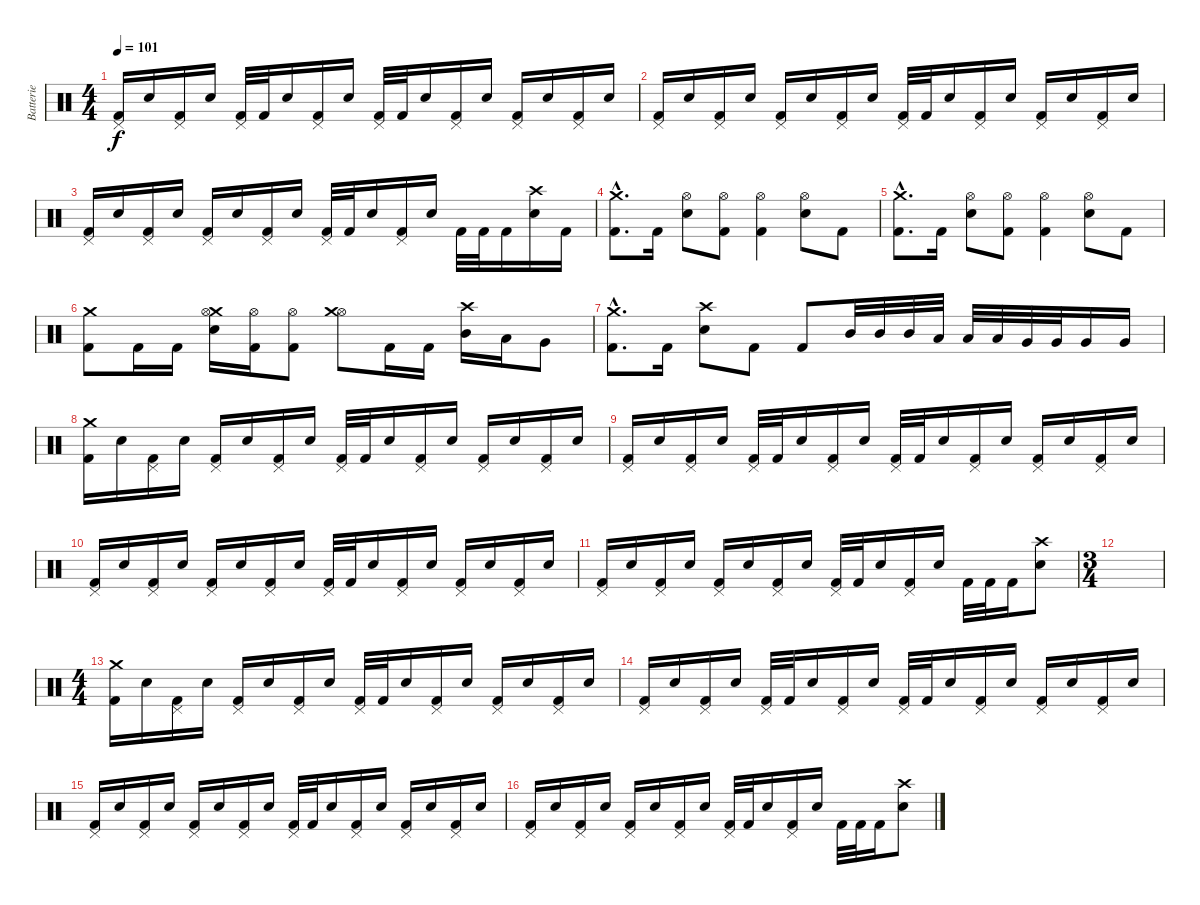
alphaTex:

\track ("Batterie" "Batterie") {instrument percussion}
\staff {score}
\articulation defaults
\ts (4 4)
\tempo 101
\clef neutral
\ks c
("Pedal Hi-Hat (hit)" "Kick (hit) 2").16{dy f} "Electric Snare (hit)".16 ("Pedal Hi-Hat (hit)" "Kick (hit) 2").16 "Electric Snare (hit)".16 ("Pedal Hi-Hat (hit)" "Kick (hit) 2").32 "Kick (hit) 2".32 "Electric Snare (hit)".16 ("Pedal Hi-Hat (hit)" "Kick (hit) 2").16 "Electric Snare (hit)".16 ("Pedal Hi-Hat (hit)" "Kick (hit) 2").32 "Kick (hit) 2".32 "Electric Snare (hit)".16 ("Pedal Hi-Hat (hit)" "Kick (hit) 2").16 "Electric Snare (hit)".16 ("Pedal Hi-Hat (hit)" "Kick (hit) 2").16 "Electric Snare (hit)".16 ("Pedal Hi-Hat (hit)" "Kick (hit) 2").16 "Electric Snare (hit)".16 |
("Pedal Hi-Hat (hit)" "Kick (hit) 2").16 "Electric Snare (hit)".16 ("Pedal Hi-Hat (hit)" "Kick (hit) 2").16 "Electric Snare (hit)".16 ("Pedal Hi-Hat (hit)" "Kick (hit) 2").16 "Electric Snare (hit)".16 ("Pedal Hi-Hat (hit)" "Kick (hit) 2").16 "Electric Snare (hit)".16 ("Pedal Hi-Hat (hit)" "Kick (hit) 2").32 "Kick (hit) 2".32 "Electric Snare (hit)".16 ("Pedal Hi-Hat (hit)" "Kick (hit) 2").16 "Electric Snare (hit)".16 ("Pedal Hi-Hat (hit)" "Kick (hit) 2").16 "Electric Snare (hit)".16 ("Pedal Hi-Hat (hit)" "Kick (hit) 2").16 "Electric Snare (hit)".16 |
("Pedal Hi-Hat (hit)" "Kick (hit) 2").16 "Electric Snare (hit)".16 ("Pedal Hi-Hat (hit)" "Kick (hit) 2").16 "Electric Snare (hit)".16 ("Pedal Hi-Hat (hit)" "Kick (hit) 2").16 "Electric Snare (hit)".16 ("Pedal Hi-Hat (hit)" "Kick (hit) 2").16 "Electric Snare (hit)".16 ("Pedal Hi-Hat (hit)" "Kick (hit) 2").32 "Kick (hit) 2".32 "Electric Snare (hit)".16 ("Pedal Hi-Hat (hit)" "Kick (hit) 2").16 "Electric Snare (hit)".16 "Kick (hit) 2".32 "Kick (hit) 2".32 "Kick (hit) 2".16 ("Crash high (hit)" "Electric Snare (hit)").16 "Kick (hit) 2".16 |
("Crash medium (hit)"{hac} "Kick (hit) 2"{hac}).8{d} "Kick (hit) 2".16 ("Hi-Hat (open)" "Electric Snare (hit)").8 ("Hi-Hat (open)" "Kick (hit) 2").8 ("Hi-Hat (open)" "Kick (hit) 2").4 ("Hi-Hat (open)" "Electric Snare (hit)").8 "Kick (hit) 2".8 |
("Crash medium (hit)"{hac} "Kick (hit) 2"{hac}).8{d} "Kick (hit) 2".16 ("Hi-Hat (open)" "Electric Snare (hit)").8 ("Hi-Hat (open)" "Kick (hit) 2").8 ("Hi-Hat (open)" "Kick (hit) 2").4 ("Hi-Hat (open)" "Electric Snare (hit)").8 "Kick (hit) 2".8 |
("Crash medium (hit)" "Kick (hit) 2").8 "Kick (hit) 2".16 "Kick (hit) 2".16 ("Crash medium (hit)" "Hi-Hat (open)" "Electric Snare (hit)").16 ("Hi-Hat (open)" "Kick (hit) 2").16 ("Hi-Hat (open)" "Kick (hit) 2").8 ("Hi-Hat (open)" "Crash medium (hit)").8 "Kick (hit) 2".16 "Kick (hit) 2".16 ("Crash high (hit)" "Mid Tom (hit)").16 "Low Tom (hit)".16 "Very Low Tom (hit)".8 |
("Crash medium (hit)"{hac} "Kick (hit) 2"{hac}).8{d} "Kick (hit) 2".16 ("Crash high (hit)" "Electric Snare (hit)").8 "Kick (hit) 2".8 "Kick (hit) 2".8 "Mid Tom (hit)".32 "Mid Tom (hit)".32 "Mid Tom (hit)".32 "Low Tom (hit)".32 "Low Tom (hit)".32 "Low Tom (hit)".32 "Very Low Tom (hit)".32 "Very Low Tom (hit)".32 "Very Low Tom (hit)".16 "Very Low Tom (hit)".16 |
("Crash medium (hit)" "Kick (hit) 2").16 "Electric Snare (hit)".16 ("Pedal Hi-Hat (hit)" "Kick (hit) 2").16 "Electric Snare (hit)".16 ("Pedal Hi-Hat (hit)" "Kick (hit) 2").16 "Electric Snare (hit)".16 ("Pedal Hi-Hat (hit)" "Kick (hit) 2").16 "Electric Snare (hit)".16 ("Pedal Hi-Hat (hit)" "Kick (hit) 2").32 "Kick (hit) 2".32 "Electric Snare (hit)".16 ("Pedal Hi-Hat (hit)" "Kick (hit) 2").16 "Electric Snare (hit)".16 ("Pedal Hi-Hat (hit)" "Kick (hit) 2").16 "Electric Snare (hit)".16 ("Pedal Hi-Hat (hit)" "Kick (hit) 2").16 "Electric Snare (hit)".16 |
("Pedal Hi-Hat (hit)" "Kick (hit) 2").16 "Electric Snare (hit)".16 ("Pedal Hi-Hat (hit)" "Kick (hit) 2").16 "Electric Snare (hit)".16 ("Pedal Hi-Hat (hit)" "Kick (hit) 2").32 "Kick (hit) 2".32 "Electric Snare (hit)".16 ("Pedal Hi-Hat (hit)" "Kick (hit) 2").16 "Electric Snare (hit)".16 ("Pedal Hi-Hat (hit)" "Kick (hit) 2").32 "Kick (hit) 2".32 "Electric Snare (hit)".16 ("Pedal Hi-Hat (hit)" "Kick (hit) 2").16 "Electric Snare (hit)".16 ("Pedal Hi-Hat (hit)" "Kick (hit) 2").16 "Electric Snare (hit)".16 ("Pedal Hi-Hat (hit)" "Kick (hit) 2").16 "Electric Snare (hit)".16 |
("Pedal Hi-Hat (hit)" "Kick (hit) 2").16 "Electric Snare (hit)".16 ("Pedal Hi-Hat (hit)" "Kick (hit) 2").16 "Electric Snare (hit)".16 ("Pedal Hi-Hat (hit)" "Kick (hit) 2").16 "Electric Snare (hit)".16 ("Pedal Hi-Hat (hit)" "Kick (hit) 2").16 "Electric Snare (hit)".16 ("Pedal Hi-Hat (hit)" "Kick (hit) 2").32 "Kick (hit) 2".32 "Electric Snare (hit)".16 ("Pedal Hi-Hat (hit)" "Kick (hit) 2").16 "Electric Snare (hit)".16 ("Pedal Hi-Hat (hit)" "Kick (hit) 2").16 "Electric Snare (hit)".16 ("Pedal Hi-Hat (hit)" "Kick (hit) 2").16 "Electric Snare (hit)".16 |
("Pedal Hi-Hat (hit)" "Kick (hit) 2").16 "Electric Snare (hit)".16 ("Pedal Hi-Hat (hit)" "Kick (hit) 2").16 "Electric Snare (hit)".16 ("Pedal Hi-Hat (hit)" "Kick (hit) 2").16 "Electric Snare (hit)".16 ("Pedal Hi-Hat (hit)" "Kick (hit) 2").16 "Electric Snare (hit)".16 ("Pedal Hi-Hat (hit)" "Kick (hit) 2").32 "Kick (hit) 2".32 "Electric Snare (hit)".16 ("Pedal Hi-Hat (hit)" "Kick (hit) 2").16 "Electric Snare (hit)".16 "Kick (hit) 2".32 "Kick (hit) 2".32 "Kick (hit) 2".16 ("Crash high (hit)" "Electric Snare (hit)").8 |
\ts (3 4)
|
\ts (4 4)
("Crash medium (hit)" "Kick (hit) 2").16 "Electric Snare (hit)".16 ("Pedal Hi-Hat (hit)" "Kick (hit) 2").16 "Electric Snare (hit)".16 ("Pedal Hi-Hat (hit)" "Kick (hit) 2").16 "Electric Snare (hit)".16 ("Pedal Hi-Hat (hit)" "Kick (hit) 2").16 "Electric Snare (hit)".16 ("Pedal Hi-Hat (hit)" "Kick (hit) 2").32 "Kick (hit) 2".32 "Electric Snare (hit)".16 ("Pedal Hi-Hat (hit)" "Kick (hit) 2").16 "Electric Snare (hit)".16 ("Pedal Hi-Hat (hit)" "Kick (hit) 2").16 "Electric Snare (hit)".16 ("Pedal Hi-Hat (hit)" "Kick (hit) 2").16 "Electric Snare (hit)".16 |
("Pedal Hi-Hat (hit)" "Kick (hit) 2").16 "Electric Snare (hit)".16 ("Pedal Hi-Hat (hit)" "Kick (hit) 2").16 "Electric Snare (hit)".16 ("Pedal Hi-Hat (hit)" "Kick (hit) 2").32 "Kick (hit) 2".32 "Electric Snare (hit)".16 ("Pedal Hi-Hat (hit)" "Kick (hit) 2").16 "Electric Snare (hit)".16 ("Pedal Hi-Hat (hit)" "Kick (hit) 2").32 "Kick (hit) 2".32 "Electric Snare (hit)".16 ("Pedal Hi-Hat (hit)" "Kick (hit) 2").16 "Electric Snare (hit)".16 ("Pedal Hi-Hat (hit)" "Kick (hit) 2").16 "Electric Snare (hit)".16 ("Pedal Hi-Hat (hit)" "Kick (hit) 2").16 "Electric Snare (hit)".16 |
("Pedal Hi-Hat (hit)" "Kick (hit) 2").16 "Electric Snare (hit)".16 ("Pedal Hi-Hat (hit)" "Kick (hit) 2").16 "Electric Snare (hit)".16 ("Pedal Hi-Hat (hit)" "Kick (hit) 2").16 "Electric Snare (hit)".16 ("Pedal Hi-Hat (hit)" "Kick (hit) 2").16 "Electric Snare (hit)".16 ("Pedal Hi-Hat (hit)" "Kick (hit) 2").32 "Kick (hit) 2".32 "Electric Snare (hit)".16 ("Pedal Hi-Hat (hit)" "Kick (hit) 2").16 "Electric Snare (hit)".16 ("Pedal Hi-Hat (hit)" "Kick (hit) 2").16 "Electric Snare (hit)".16 ("Pedal Hi-Hat (hit)" "Kick (hit) 2").16 "Electric Snare (hit)".16 |
("Pedal Hi-Hat (hit)" "Kick (hit) 2").16 "Electric Snare (hit)".16 ("Pedal Hi-Hat (hit)" "Kick (hit) 2").16 "Electric Snare (hit)".16 ("Pedal Hi-Hat (hit)" "Kick (hit) 2").16 "Electric Snare (hit)".16 ("Pedal Hi-Hat (hit)" "Kick (hit) 2").16 "Electric Snare (hit)".16 ("Pedal Hi-Hat (hit)" "Kick (hit) 2").32 "Kick (hit) 2".32 "Electric Snare (hit)".16 ("Pedal Hi-Hat (hit)" "Kick (hit) 2").16 "Electric Snare (hit)".16 "Kick (hit) 2".32 "Kick (hit) 2".32 "Kick (hit) 2".16 ("Crash high (hit)" "Electric Snare (hit)").8
